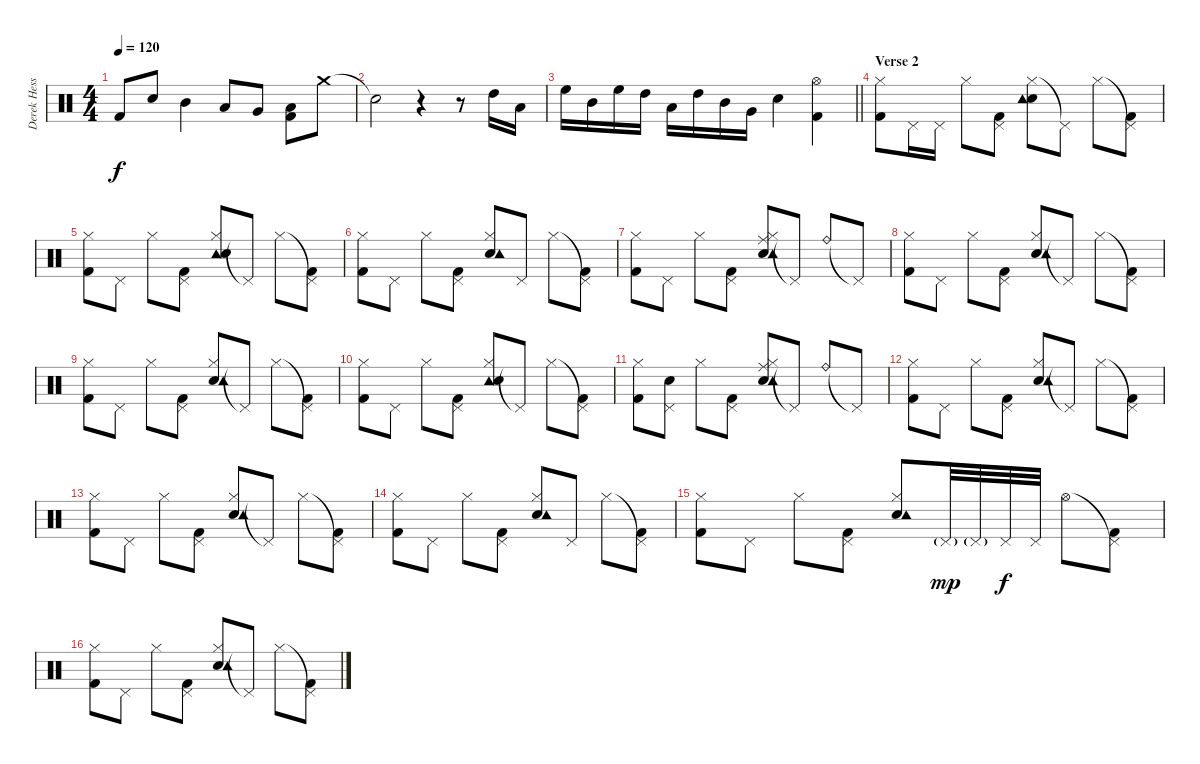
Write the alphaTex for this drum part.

\track ("Derek Hess (Drums and Percussion)" "Derek Hess") {instrument percussion}
\staff {score}
\articulation defaults
\ts (4 4)
\tempo 120
\clef neutral
\ks c "Kick (hit) 2".8{dy f} "Snare (hit) 2".8 "Mid Tom (hit)".4 "Low Tom (hit)".8 "Very Low Tom (hit)".8
("Low Floor Tom (hit)" "Kick (hit) 2").8 "Crash medium (hit)".8 |
"Snare (hit)"{t}.2 r.4 r.8 "High Tom (hit)".16 "Low Tom (hit)".16 |
\barLineRight lightlight "High Floor Tom (hit)".16 "Mid Tom (hit)".16 "High Floor Tom (hit)".16 "High Tom (hit)".16 "Low Tom (hit)".16 "High Tom (hit)".16 "Mid Tom (hit)".16 "Very Low Tom (hit)".16 "Snare (hit) 2".4
("Hi-Hat (open)" "Kick (hit) 2").4 |
\section ("" "Verse 2")
("Hi-Hat (closed)" "Kick (hit) 2").8 "Pedal Hi-Hat (hit)".16 "Pedal Hi-Hat (hit)".16 "Hi-Hat (closed)".8 ("Pedal Hi-Hat (hit)" "Kick (hit) 2").8 ("Hi-Hat (closed)" "Electric Snare (hit)" "Tambourine (hit)").8 "Pedal Hi-Hat (hit)"{t}.8 "Hi-Hat (closed)".8 ("Pedal Hi-Hat (hit)"{t} "Kick (hit) 2").8 |
("Hi-Hat (closed)" "Kick (hit) 2").8 "Pedal Hi-Hat (hit)".8 "Hi-Hat (closed)".8 ("Pedal Hi-Hat (hit)" "Kick (hit) 2").8 ("Hi-Hat (closed)" "Tambourine (hit)" "Snare (hit) 2").8 "Pedal Hi-Hat (hit)"{t}.8 "Hi-Hat (closed)".8 ("Pedal Hi-Hat (hit)"{t} "Kick (hit) 2").8 |
("Hi-Hat (closed)" "Kick (hit) 2").8 "Pedal Hi-Hat (hit)".8 "Hi-Hat (closed)".8 ("Pedal Hi-Hat (hit)" "Kick (hit) 2").8 ("Hi-Hat (closed)" "Snare (hit) 2" "Tambourine (hit)").8 "Pedal Hi-Hat (hit)".8 "Hi-Hat (closed)".8 ("Pedal Hi-Hat (hit)"{t} "Kick (hit) 2").8 |
("Hi-Hat (closed)" "Kick (hit) 2").8 "Pedal Hi-Hat (hit)".8 "Hi-Hat (closed)".8 ("Pedal Hi-Hat (hit)" "Kick (hit) 2").8 ("Hi-Hat (closed)" "Snare (hit) 2" "Tambourine (hit)" "Ride (middle)").8 "Pedal Hi-Hat (hit)"{t}.8 "Ride (bell)".8 "Pedal Hi-Hat (hit)"{t}.8 |
("Hi-Hat (closed)" "Kick (hit) 2").8 "Pedal Hi-Hat (hit)".8 "Hi-Hat (closed)".8 ("Pedal Hi-Hat (hit)" "Kick (hit) 2").8 ("Hi-Hat (closed)" "Snare (hit) 2" "Tambourine (hit)").8 "Pedal Hi-Hat (hit)"{t}.8 "Hi-Hat (closed)".8 ("Pedal Hi-Hat (hit)"{t} "Kick (hit) 2").8 |
("Hi-Hat (closed)" "Kick (hit) 2").8 "Pedal Hi-Hat (hit)".8 "Hi-Hat (closed)".8 ("Pedal Hi-Hat (hit)" "Kick (hit) 2").8 ("Hi-Hat (closed)" "Snare (hit) 2" "Tambourine (hit)").8 "Pedal Hi-Hat (hit)"{t}.8 "Hi-Hat (closed)".8 ("Pedal Hi-Hat (hit)"{t} "Kick (hit) 2").8 |
("Hi-Hat (closed)" "Kick (hit) 2").8 "Pedal Hi-Hat (hit)".8 "Hi-Hat (closed)".8 ("Pedal Hi-Hat (hit)" "Kick (hit) 2").8 ("Hi-Hat (closed)" "Tambourine (hit)" "Snare (hit) 2").8 "Pedal Hi-Hat (hit)"{t}.8 "Hi-Hat (closed)".8 ("Pedal Hi-Hat (hit)"{t} "Kick (hit) 2").8 |
("Hi-Hat (closed)" "Kick (hit) 2").8 ("Pedal Hi-Hat (hit)" "Snare (hit) 2").8 "Hi-Hat (closed)".8 ("Pedal Hi-Hat (hit)" "Kick (hit) 2").8 ("Hi-Hat (closed)" "Snare (hit) 2" "Tambourine (hit)" "Ride (middle)").8 "Pedal Hi-Hat (hit)"{t}.8 "Ride (bell)".8 "Pedal Hi-Hat (hit)"{t}.8 |
("Hi-Hat (closed)" "Kick (hit) 2").8 "Pedal Hi-Hat (hit)".8 "Hi-Hat (closed)".8 ("Pedal Hi-Hat (hit)" "Kick (hit) 2").8 ("Hi-Hat (closed)" "Snare (hit) 2" "Tambourine (hit)").8 "Pedal Hi-Hat (hit)"{t}.8 "Hi-Hat (closed)".8 ("Pedal Hi-Hat (hit)"{t} "Kick (hit) 2").8 |
("Hi-Hat (closed)" "Kick (hit) 2").8 "Pedal Hi-Hat (hit)".8 "Hi-Hat (closed)".8 ("Pedal Hi-Hat (hit)" "Kick (hit) 2").8 ("Hi-Hat (closed)" "Snare (hit) 2" "Tambourine (hit)").8 "Pedal Hi-Hat (hit)"{t}.8 "Hi-Hat (closed)".8 ("Pedal Hi-Hat (hit)"{t} "Kick (hit) 2").8 |
("Hi-Hat (closed)" "Kick (hit) 2").8 "Pedal Hi-Hat (hit)".8 "Hi-Hat (closed)".8 ("Pedal Hi-Hat (hit)" "Kick (hit) 2").8 ("Hi-Hat (closed)" "Snare (hit) 2" "Tambourine (hit)").8 "Pedal Hi-Hat (hit)".8 "Hi-Hat (closed)".8 ("Pedal Hi-Hat (hit)"{t} "Kick (hit) 2").8 |
("Hi-Hat (closed)" "Kick (hit) 2").8 "Pedal Hi-Hat (hit)".8 "Hi-Hat (closed)".8 ("Pedal Hi-Hat (hit)" "Kick (hit) 2").8 ("Hi-Hat (closed)" "Snare (hit) 2" "Tambourine (hit)").8 "Pedal Hi-Hat (hit)"{g}.32{dy mp} "Pedal Hi-Hat (hit)"{g}.32 "Pedal Hi-Hat (hit)".32{dy f} "Pedal Hi-Hat (hit)".32 "Hi-Hat (open)".8 ("Pedal Hi-Hat (hit)"{t} "Kick (hit) 2").8 |
("Hi-Hat (closed)" "Kick (hit) 2").8 "Pedal Hi-Hat (hit)".8 "Hi-Hat (closed)".8 ("Pedal Hi-Hat (hit)" "Kick (hit) 2").8 ("Hi-Hat (closed)" "Snare (hit) 2" "Tambourine (hit)").8 "Pedal Hi-Hat (hit)"{t}.8 "Hi-Hat (closed)".8 ("Pedal Hi-Hat (hit)"{t} "Kick (hit) 2").8
